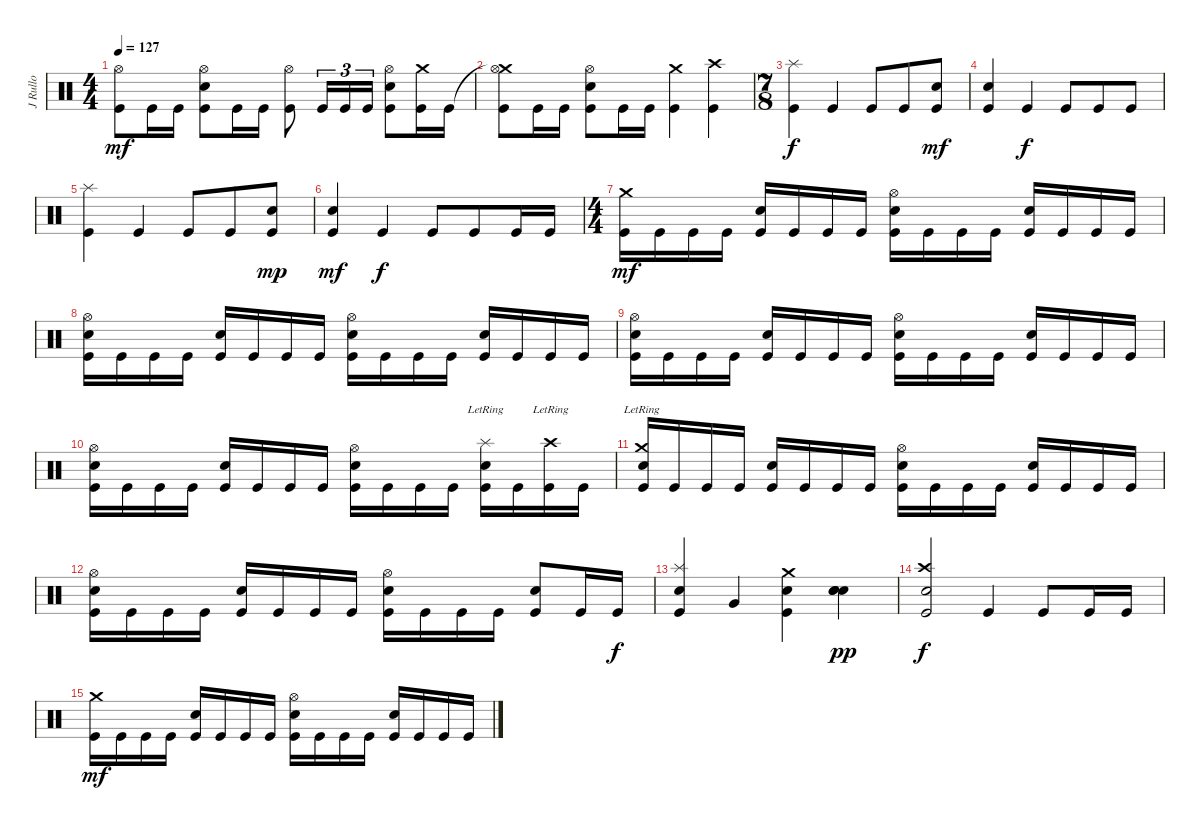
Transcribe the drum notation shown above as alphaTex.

\track ("J Rullo" "J Rullo") {instrument percussion}
\staff {score}
\articulation defaults
\ts (4 4)
\tempo 127
\clef neutral
\ks c
("Hi-Hat (open)" "Kick (hit)").8{dy mf} "Kick (hit)".16 "Kick (hit)".16 ("Hi-Hat (open)" "Snare (hit) 2" "Kick (hit)").8 "Kick (hit)".16 "Kick (hit)".16 ("Hi-Hat (open)" "Kick (hit)").8 "Kick (hit)".16{tu (3 2)} "Kick (hit)".16{tu (3 2)} "Kick (hit)".16{tu (3 2)} ("Hi-Hat (open)" "Snare (hit) 2" "Kick (hit)").8 ("Crash medium (hit)" "Kick (hit)").16 "Kick (hit)".16 |
("Crash medium (hit)"{t} "Hi-Hat (open)" "Kick (hit)").8 "Kick (hit)".16 "Kick (hit)".16 ("Hi-Hat (open)" "Snare (hit) 2" "Kick (hit)").8 "Kick (hit)".16 "Kick (hit)".16 ("Crash medium (hit)" "Kick (hit)").4 ("Crash high (hit)" "Kick (hit)").4 |
\ts (7 8)
("Splash (hit)" "Kick (hit)").4{dy f} "Kick (hit)".4 "Kick (hit)".8 "Kick (hit)".8 ("Snare (hit) 2" "Kick (hit)").8{dy mf} |
("Electric Snare (hit)" "Kick (hit)").4 "Kick (hit)".4{dy f} "Kick (hit)".8 "Kick (hit)".8 "Kick (hit)".8 |
("Splash (hit)" "Kick (hit)").4 "Kick (hit)".4 "Kick (hit)".8 "Kick (hit)".8 ("Snare (hit) 2" "Kick (hit)").8{dy mp} |
("Electric Snare (hit)" "Kick (hit)").4{dy mf} "Kick (hit)".4{dy f} "Kick (hit)".8 "Kick (hit)".8 "Kick (hit)".16 "Kick (hit)".16 |
\ts (4 4)
("Crash medium (hit)" "Kick (hit)").16{dy mf} "Kick (hit)".16 "Kick (hit)".16 "Kick (hit)".16 ("Snare (hit) 2" "Kick (hit)").16 "Kick (hit)".16 "Kick (hit)".16 "Kick (hit)".16 ("Hi-Hat (open)" "Electric Snare (hit)" "Kick (hit)").16 "Kick (hit)".16 "Kick (hit)".16 "Kick (hit)".16 ("Snare (hit) 2" "Kick (hit)").16 "Kick (hit)".16 "Kick (hit)".16 "Kick (hit)".16 |
("Hi-Hat (open)" "Electric Snare (hit)" "Kick (hit)").16 "Kick (hit)".16 "Kick (hit)".16 "Kick (hit)".16 ("Snare (hit) 2" "Kick (hit)").16 "Kick (hit)".16 "Kick (hit)".16 "Kick (hit)".16 ("Hi-Hat (open)" "Electric Snare (hit)" "Kick (hit)").16 "Kick (hit)".16 "Kick (hit)".16 "Kick (hit)".16 ("Snare (hit) 2" "Kick (hit)").16 "Kick (hit)".16 "Kick (hit)".16 "Kick (hit)".16 |
("Hi-Hat (open)" "Electric Snare (hit)" "Kick (hit)").16 "Kick (hit)".16 "Kick (hit)".16 "Kick (hit)".16 ("Snare (hit) 2" "Kick (hit)").16 "Kick (hit)".16 "Kick (hit)".16 "Kick (hit)".16 ("Hi-Hat (open)" "Electric Snare (hit)" "Kick (hit)").16 "Kick (hit)".16 "Kick (hit)".16 "Kick (hit)".16 ("Snare (hit) 2" "Kick (hit)").16 "Kick (hit)".16 "Kick (hit)".16 "Kick (hit)".16 |
("Hi-Hat (open)" "Electric Snare (hit)" "Kick (hit)").16 "Kick (hit)".16 "Kick (hit)".16 "Kick (hit)".16 ("Snare (hit) 2" "Kick (hit)").16 "Kick (hit)".16 "Kick (hit)".16 "Kick (hit)".16 ("Hi-Hat (open)" "Electric Snare (hit)" "Kick (hit)").16 "Kick (hit)".16 "Kick (hit)".16 "Kick (hit)".16 ("Snare (hit) 2" "Splash (hit)"{lr} "Kick (hit)").16 "Kick (hit)".16 ("Crash high (hit)"{lr} "Kick (hit)").16 "Kick (hit)".16 |
("Crash medium (hit)"{lr} "Electric Snare (hit)" "Kick (hit)").16 "Kick (hit)".16 "Kick (hit)".16 "Kick (hit)".16 ("Snare (hit) 2" "Kick (hit)").16 "Kick (hit)".16 "Kick (hit)".16 "Kick (hit)".16 ("Hi-Hat (open)" "Electric Snare (hit)" "Kick (hit)").16 "Kick (hit)".16 "Kick (hit)".16 "Kick (hit)".16 ("Snare (hit) 2" "Kick (hit)").16 "Kick (hit)".16 "Kick (hit)".16 "Kick (hit)".16 |
("Hi-Hat (open)" "Electric Snare (hit)" "Kick (hit)").16 "Kick (hit)".16 "Kick (hit)".16 "Kick (hit)".16 ("Snare (hit) 2" "Kick (hit)").16 "Kick (hit)".16 "Kick (hit)".16 "Kick (hit)".16 ("Hi-Hat (open)" "Electric Snare (hit)" "Kick (hit)").16 "Kick (hit)".16 "Kick (hit)".16 "Kick (hit)".16 ("Snare (hit) 2" "Kick (hit)").8 "Kick (hit)".16 "Kick (hit)".16{dy f} |
("Splash (hit)" "Electric Snare (hit)" "Kick (hit)").4 "Very Low Tom (hit)".4 ("Crash medium (hit)" "Snare (hit) 2" "Kick (hit)").4 ("Snare (hit) 2" "Snare (hit) 2" "Snare (hit) 2").4{bd 240 dy pp} |
("Crash high (hit)" "Electric Snare (hit)" "Kick (hit)").2{dy f} "Kick (hit)".4 "Kick (hit)".8 "Kick (hit)".16 "Kick (hit)".16 |
("Crash medium (hit)" "Kick (hit)").16{dy mf} "Kick (hit)".16 "Kick (hit)".16 "Kick (hit)".16 ("Snare (hit) 2" "Kick (hit)").16 "Kick (hit)".16 "Kick (hit)".16 "Kick (hit)".16 ("Hi-Hat (open)" "Electric Snare (hit)" "Kick (hit)").16 "Kick (hit)".16 "Kick (hit)".16 "Kick (hit)".16 ("Snare (hit) 2" "Kick (hit)").16 "Kick (hit)".16 "Kick (hit)".16 "Kick (hit)".16
